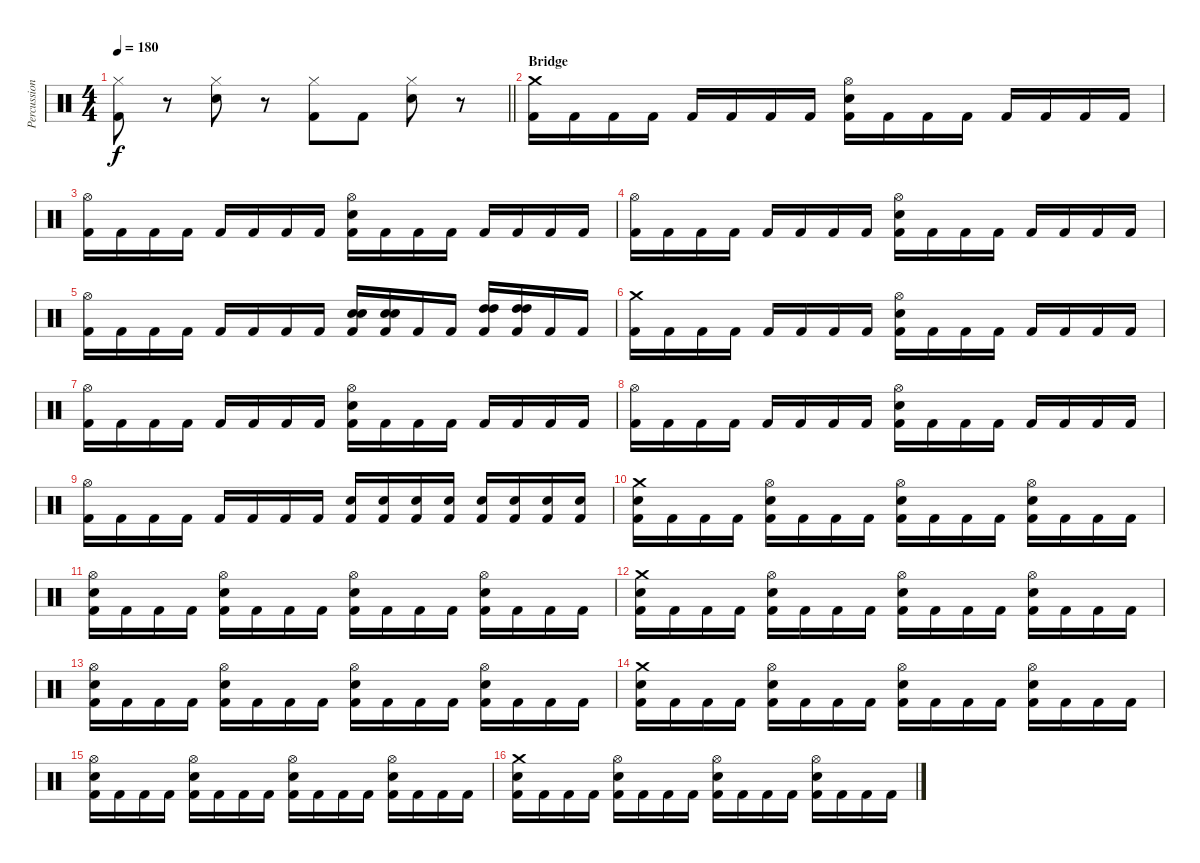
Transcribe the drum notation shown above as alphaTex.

\track ("Percussion" "Percussion") {instrument percussion}
\staff {score}
\articulation defaults
\ts (4 4)
\tempo 180
\clef neutral
\barLineRight lightlight
\ks c
("Hi-Hat (closed)" "Kick (hit) 2").8{dy f} r.8 ("Hi-Hat (closed)" "Electric Snare (hit)").8 r.8 ("Hi-Hat (closed)" "Kick (hit) 2").8 "Kick (hit) 2".8 ("Hi-Hat (closed)" "Electric Snare (hit)").8 r.8 |
\section ("" "Bridge")
("Crash medium (hit)" "Kick (hit) 2").16 "Kick (hit) 2".16 "Kick (hit) 2".16 "Kick (hit) 2".16 "Kick (hit) 2".16 "Kick (hit) 2".16 "Kick (hit) 2".16 "Kick (hit) 2".16 ("Hi-Hat (open)" "Electric Snare (hit)" "Kick (hit) 2").16 "Kick (hit) 2".16 "Kick (hit) 2".16 "Kick (hit) 2".16 "Kick (hit) 2".16 "Kick (hit) 2".16 "Kick (hit) 2".16 "Kick (hit) 2".16 |
("Hi-Hat (open)" "Kick (hit) 2").16 "Kick (hit) 2".16 "Kick (hit) 2".16 "Kick (hit) 2".16 "Kick (hit) 2".16 "Kick (hit) 2".16 "Kick (hit) 2".16 "Kick (hit) 2".16 ("Hi-Hat (open)" "Electric Snare (hit)" "Kick (hit) 2").16 "Kick (hit) 2".16 "Kick (hit) 2".16 "Kick (hit) 2".16 "Kick (hit) 2".16 "Kick (hit) 2".16 "Kick (hit) 2".16 "Kick (hit) 2".16 |
("Hi-Hat (open)" "Kick (hit) 2").16 "Kick (hit) 2".16 "Kick (hit) 2".16 "Kick (hit) 2".16 "Kick (hit) 2".16 "Kick (hit) 2".16 "Kick (hit) 2".16 "Kick (hit) 2".16 ("Hi-Hat (open)" "Electric Snare (hit)" "Kick (hit) 2").16 "Kick (hit) 2".16 "Kick (hit) 2".16 "Kick (hit) 2".16 "Kick (hit) 2".16 "Kick (hit) 2".16 "Kick (hit) 2".16 "Kick (hit) 2".16 |
("Hi-Hat (open)" "Kick (hit) 2").16 "Kick (hit) 2".16 "Kick (hit) 2".16 "Kick (hit) 2".16 "Kick (hit) 2".16 "Kick (hit) 2".16 "Kick (hit) 2".16 "Kick (hit) 2".16 ("Electric Snare (hit)" "Electric Snare (hit)" "Kick (hit) 2").16 ("Electric Snare (hit)" "Electric Snare (hit)" "Kick (hit) 2").16 "Kick (hit) 2".16 "Kick (hit) 2".16 ("High Tom (hit)" "High Tom (hit)" "Kick (hit) 2").16 ("High Tom (hit)" "High Tom (hit)" "Kick (hit) 2").16 "Kick (hit) 2".16 "Kick (hit) 2".16 |
("Crash medium (hit)" "Kick (hit) 2").16 "Kick (hit) 2".16 "Kick (hit) 2".16 "Kick (hit) 2".16 "Kick (hit) 2".16 "Kick (hit) 2".16 "Kick (hit) 2".16 "Kick (hit) 2".16 ("Hi-Hat (open)" "Electric Snare (hit)" "Kick (hit) 2").16 "Kick (hit) 2".16 "Kick (hit) 2".16 "Kick (hit) 2".16 "Kick (hit) 2".16 "Kick (hit) 2".16 "Kick (hit) 2".16 "Kick (hit) 2".16 |
("Hi-Hat (open)" "Kick (hit) 2").16 "Kick (hit) 2".16 "Kick (hit) 2".16 "Kick (hit) 2".16 "Kick (hit) 2".16 "Kick (hit) 2".16 "Kick (hit) 2".16 "Kick (hit) 2".16 ("Hi-Hat (open)" "Electric Snare (hit)" "Kick (hit) 2").16 "Kick (hit) 2".16 "Kick (hit) 2".16 "Kick (hit) 2".16 "Kick (hit) 2".16 "Kick (hit) 2".16 "Kick (hit) 2".16 "Kick (hit) 2".16 |
("Hi-Hat (open)" "Kick (hit) 2").16 "Kick (hit) 2".16 "Kick (hit) 2".16 "Kick (hit) 2".16 "Kick (hit) 2".16 "Kick (hit) 2".16 "Kick (hit) 2".16 "Kick (hit) 2".16 ("Hi-Hat (open)" "Electric Snare (hit)" "Kick (hit) 2").16 "Kick (hit) 2".16 "Kick (hit) 2".16 "Kick (hit) 2".16 "Kick (hit) 2".16 "Kick (hit) 2".16 "Kick (hit) 2".16 "Kick (hit) 2".16 |
("Hi-Hat (open)" "Kick (hit) 2").16 "Kick (hit) 2".16 "Kick (hit) 2".16 "Kick (hit) 2".16 "Kick (hit) 2".16 "Kick (hit) 2".16 "Kick (hit) 2".16 "Kick (hit) 2".16 ("Electric Snare (hit)" "Kick (hit) 2").16 ("Electric Snare (hit)" "Kick (hit) 2").16 ("Electric Snare (hit)" "Kick (hit) 2").16 ("Electric Snare (hit)" "Kick (hit) 2").16 ("Electric Snare (hit)" "Kick (hit) 2").16 ("Electric Snare (hit)" "Kick (hit) 2").16 ("Electric Snare (hit)" "Kick (hit) 2").16 ("Electric Snare (hit)" "Kick (hit) 2").16 |
("Crash medium (hit)" "Electric Snare (hit)" "Kick (hit) 2").16 "Kick (hit) 2".16 "Kick (hit) 2".16 "Kick (hit) 2".16 ("Hi-Hat (open)" "Electric Snare (hit)" "Kick (hit) 2").16 "Kick (hit) 2".16 "Kick (hit) 2".16 "Kick (hit) 2".16 ("Hi-Hat (open)" "Electric Snare (hit)" "Kick (hit) 2").16 "Kick (hit) 2".16 "Kick (hit) 2".16 "Kick (hit) 2".16 ("Hi-Hat (open)" "Electric Snare (hit)" "Kick (hit) 2").16 "Kick (hit) 2".16 "Kick (hit) 2".16 "Kick (hit) 2".16 |
("Hi-Hat (open)" "Electric Snare (hit)" "Kick (hit) 2").16 "Kick (hit) 2".16 "Kick (hit) 2".16 "Kick (hit) 2".16 ("Hi-Hat (open)" "Electric Snare (hit)" "Kick (hit) 2").16 "Kick (hit) 2".16 "Kick (hit) 2".16 "Kick (hit) 2".16 ("Hi-Hat (open)" "Electric Snare (hit)" "Kick (hit) 2").16 "Kick (hit) 2".16 "Kick (hit) 2".16 "Kick (hit) 2".16 ("Hi-Hat (open)" "Electric Snare (hit)" "Kick (hit) 2").16 "Kick (hit) 2".16 "Kick (hit) 2".16 "Kick (hit) 2".16 |
("Crash medium (hit)" "Electric Snare (hit)" "Kick (hit) 2").16 "Kick (hit) 2".16 "Kick (hit) 2".16 "Kick (hit) 2".16 ("Hi-Hat (open)" "Electric Snare (hit)" "Kick (hit) 2").16 "Kick (hit) 2".16 "Kick (hit) 2".16 "Kick (hit) 2".16 ("Hi-Hat (open)" "Electric Snare (hit)" "Kick (hit) 2").16 "Kick (hit) 2".16 "Kick (hit) 2".16 "Kick (hit) 2".16 ("Hi-Hat (open)" "Electric Snare (hit)" "Kick (hit) 2").16 "Kick (hit) 2".16 "Kick (hit) 2".16 "Kick (hit) 2".16 |
("Hi-Hat (open)" "Electric Snare (hit)" "Kick (hit) 2").16 "Kick (hit) 2".16 "Kick (hit) 2".16 "Kick (hit) 2".16 ("Hi-Hat (open)" "Electric Snare (hit)" "Kick (hit) 2").16 "Kick (hit) 2".16 "Kick (hit) 2".16 "Kick (hit) 2".16 ("Hi-Hat (open)" "Electric Snare (hit)" "Kick (hit) 2").16 "Kick (hit) 2".16 "Kick (hit) 2".16 "Kick (hit) 2".16 ("Hi-Hat (open)" "Electric Snare (hit)" "Kick (hit) 2").16 "Kick (hit) 2".16 "Kick (hit) 2".16 "Kick (hit) 2".16 |
("Crash medium (hit)" "Electric Snare (hit)" "Kick (hit) 2").16 "Kick (hit) 2".16 "Kick (hit) 2".16 "Kick (hit) 2".16 ("Hi-Hat (open)" "Electric Snare (hit)" "Kick (hit) 2").16 "Kick (hit) 2".16 "Kick (hit) 2".16 "Kick (hit) 2".16 ("Hi-Hat (open)" "Electric Snare (hit)" "Kick (hit) 2").16 "Kick (hit) 2".16 "Kick (hit) 2".16 "Kick (hit) 2".16 ("Hi-Hat (open)" "Electric Snare (hit)" "Kick (hit) 2").16 "Kick (hit) 2".16 "Kick (hit) 2".16 "Kick (hit) 2".16 |
("Hi-Hat (open)" "Electric Snare (hit)" "Kick (hit) 2").16 "Kick (hit) 2".16 "Kick (hit) 2".16 "Kick (hit) 2".16 ("Hi-Hat (open)" "Electric Snare (hit)" "Kick (hit) 2").16 "Kick (hit) 2".16 "Kick (hit) 2".16 "Kick (hit) 2".16 ("Hi-Hat (open)" "Electric Snare (hit)" "Kick (hit) 2").16 "Kick (hit) 2".16 "Kick (hit) 2".16 "Kick (hit) 2".16 ("Hi-Hat (open)" "Electric Snare (hit)" "Kick (hit) 2").16 "Kick (hit) 2".16 "Kick (hit) 2".16 "Kick (hit) 2".16 |
("Crash medium (hit)" "Electric Snare (hit)" "Kick (hit) 2").16 "Kick (hit) 2".16 "Kick (hit) 2".16 "Kick (hit) 2".16 ("Hi-Hat (open)" "Electric Snare (hit)" "Kick (hit) 2").16 "Kick (hit) 2".16 "Kick (hit) 2".16 "Kick (hit) 2".16 ("Hi-Hat (open)" "Electric Snare (hit)" "Kick (hit) 2").16 "Kick (hit) 2".16 "Kick (hit) 2".16 "Kick (hit) 2".16 ("Hi-Hat (open)" "Electric Snare (hit)" "Kick (hit) 2").16 "Kick (hit) 2".16 "Kick (hit) 2".16 "Kick (hit) 2".16
